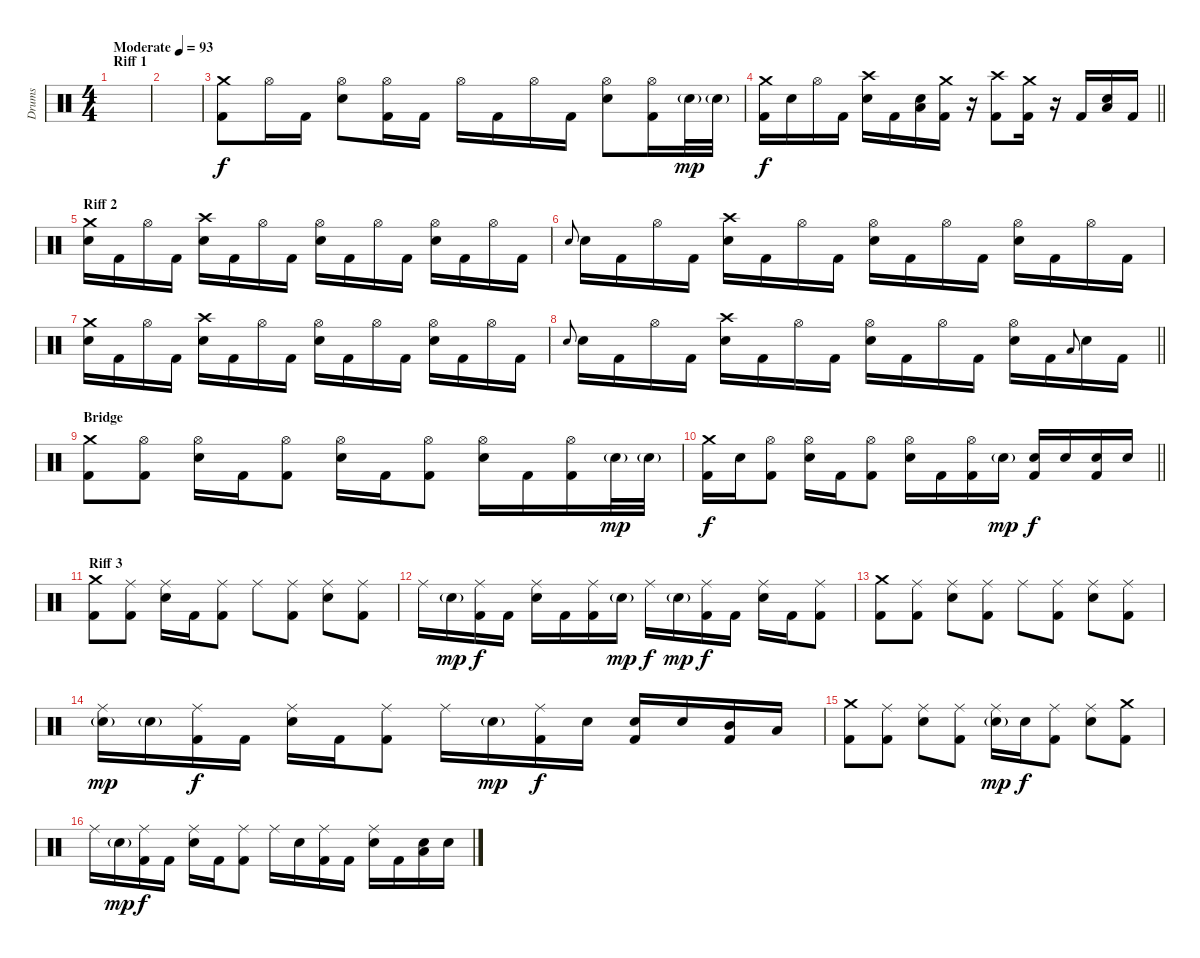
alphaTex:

\track ("Drums" "Drums") {instrument percussion}
\staff {score}
\articulation defaults
\ts (4 4)
\section ("" "Riff 1")
\tempo (93 "Moderate")
\clef neutral
\ks c
|
|
("Kick (hit) 2" "Crash medium (hit)").8 "Hi-Hat (open)".16 "Kick (hit) 2".16 ("Hi-Hat (open)" "Electric Snare (hit)").8 ("Kick (hit) 2" "Hi-Hat (open)").16 "Kick (hit) 2".16 "Hi-Hat (open)".16 "Kick (hit) 2".16 "Hi-Hat (open)".16 "Kick (hit) 2".16 ("Electric Snare (hit)" "Hi-Hat (open)").8 ("Kick (hit) 2" "Hi-Hat (open)").16 "Electric Snare (hit)"{g}.32{dy mp} "Electric Snare (hit)"{g}.32 |
\barLineRight lightlight
("Crash medium (hit)" "Kick (hit) 2").16{dy f} "Electric Snare (hit)".16 "Hi-Hat (open)".16 "Kick (hit) 2".16 ("Crash high (hit)" "Electric Snare (hit)").16 "Kick (hit) 2".16 ("Electric Snare (hit)" "Low Floor Tom (hit)").16 ("Crash medium (hit)" "Kick (hit) 2").16 r.16 ("Kick (hit) 2" "Crash high (hit)").8 ("Crash medium (hit)" "Kick (hit) 2").16 r.16 "Kick (hit) 2".16 ("Electric Snare (hit)" "Low Floor Tom (hit)").16 "Kick (hit) 2".16 |
\section ("" "Riff 2")
("Electric Snare (hit)" "Crash medium (hit)").16 "Kick (hit) 2".16 "Hi-Hat (open)".16 "Kick (hit) 2".16 ("Crash high (hit)" "Electric Snare (hit)").16 "Kick (hit) 2".16 "Hi-Hat (open)".16 "Kick (hit) 2".16 ("Hi-Hat (open)" "Electric Snare (hit)").16 "Kick (hit) 2".16 "Hi-Hat (open)".16 "Kick (hit) 2".16 ("Hi-Hat (open)" "Electric Snare (hit)").16 "Kick (hit) 2".16 "Hi-Hat (open)".16 "Kick (hit) 2".16 |
"Electric Snare (hit)".8{gr onbeat} "Electric Snare (hit)".16 "Kick (hit) 2".16 "Hi-Hat (open)".16 "Kick (hit) 2".16 ("Crash high (hit)" "Electric Snare (hit)").16 "Kick (hit) 2".16 "Hi-Hat (open)".16 "Kick (hit) 2".16 ("Hi-Hat (open)" "Electric Snare (hit)").16 "Kick (hit) 2".16 "Hi-Hat (open)".16 "Kick (hit) 2".16 ("Hi-Hat (open)" "Electric Snare (hit)").16 "Kick (hit) 2".16 "Hi-Hat (open)".16 "Kick (hit) 2".16 |
("Electric Snare (hit)" "Crash medium (hit)").16 "Kick (hit) 2".16 "Hi-Hat (open)".16 "Kick (hit) 2".16 ("Crash high (hit)" "Electric Snare (hit)").16 "Kick (hit) 2".16 "Hi-Hat (open)".16 "Kick (hit) 2".16 ("Hi-Hat (open)" "Electric Snare (hit)").16 "Kick (hit) 2".16 "Hi-Hat (open)".16 "Kick (hit) 2".16 ("Hi-Hat (open)" "Electric Snare (hit)").16 "Kick (hit) 2".16 "Hi-Hat (open)".16 "Kick (hit) 2".16 |
\barLineRight lightlight "Electric Snare (hit)".8{gr onbeat} "Electric Snare (hit)".16 "Kick (hit) 2".16 "Hi-Hat (open)".16 "Kick (hit) 2".16
("Crash high (hit)" "Electric Snare (hit)").16 "Kick (hit) 2".16 "Hi-Hat (open)".16 "Kick (hit) 2".16 ("Hi-Hat (open)" "Electric Snare (hit)").16 "Kick (hit) 2".16 "Hi-Hat (open)".16 "Kick (hit) 2".16 ("Hi-Hat (open)" "Electric Snare (hit)").16 "Kick (hit) 2".16 "Low Floor Tom (hit)".8{gr onbeat} "Electric Snare (hit)".16 "Kick (hit) 2".16 |
\section ("" "Bridge")
("Kick (hit) 2" "Crash medium (hit)").8 ("Hi-Hat (open)" "Kick (hit) 2").8 ("Hi-Hat (open)" "Electric Snare (hit)").16 "Kick (hit) 2".16 ("Kick (hit) 2" "Hi-Hat (open)").8 ("Hi-Hat (open)" "Electric Snare (hit)").16 "Kick (hit) 2".16 ("Kick (hit) 2" "Hi-Hat (open)").8 ("Hi-Hat (open)" "Electric Snare (hit)").16 "Kick (hit) 2".16 ("Kick (hit) 2" "Hi-Hat (open)").16 "Electric Snare (hit)"{g}.32{dy mp} "Electric Snare (hit)"{g}.32 |
\barLineRight lightlight
("Crash medium (hit)" "Kick (hit) 2").16{dy f} "Electric Snare (hit)".16 ("Hi-Hat (open)" "Kick (hit) 2").8 ("Electric Snare (hit)" "Hi-Hat (open)").16 "Kick (hit) 2".16 ("Kick (hit) 2" "Hi-Hat (open)").8 ("Electric Snare (hit)" "Hi-Hat (open)").16 "Kick (hit) 2".16 ("Kick (hit) 2" "Hi-Hat (open)").16 "Electric Snare (hit)"{g}.16{dy mp} ("Kick (hit) 2" "Electric Snare (hit)").16{dy f} "Electric Snare (hit)".16 ("Kick (hit) 2" "Electric Snare (hit)").16 "Electric Snare (hit)".16 |
\section ("" "Riff 3")
("Crash medium (hit)" "Kick (hit) 2").8 ("Ride (middle)" "Kick (hit) 2").8 ("Electric Snare (hit)" "Ride (middle)").16 "Kick (hit) 2".16 ("Ride (middle)" "Kick (hit) 2").8 "Ride (middle)".8 ("Kick (hit) 2" "Ride (middle)").8 ("Electric Snare (hit)" "Ride (middle)").8 ("Kick (hit) 2" "Ride (middle)").8 |
"Ride (middle)".16 "Electric Snare (hit)"{g}.16{dy mp} ("Kick (hit) 2" "Ride (middle)").16{dy f} "Kick (hit) 2".16 ("Electric Snare (hit)" "Ride (middle)").16 "Kick (hit) 2".16 ("Kick (hit) 2" "Ride (middle)").16 "Electric Snare (hit)"{g}.16{dy mp} "Ride (middle)".16{dy f} "Electric Snare (hit)"{g}.16{dy mp} ("Ride (middle)" "Kick (hit) 2").16{dy f} "Kick (hit) 2".16 ("Ride (middle)" "Electric Snare (hit)").16 "Kick (hit) 2".16 ("Kick (hit) 2" "Ride (middle)").8 |
("Crash medium (hit)" "Kick (hit) 2").8 ("Ride (middle)" "Kick (hit) 2").8 ("Electric Snare (hit)" "Ride (middle)").8 ("Ride (middle)" "Kick (hit) 2").8 "Ride (middle)".8 ("Kick (hit) 2" "Ride (middle)").8 ("Electric Snare (hit)" "Ride (middle)").8 ("Kick (hit) 2" "Ride (middle)").8 |
("Electric Snare (hit)"{g} "Ride (middle)").16{dy mp} "Electric Snare (hit)"{g}.16 ("Ride (middle)" "Kick (hit) 2").16{dy f} "Kick (hit) 2".16 ("Electric Snare (hit)" "Ride (middle)").16 "Kick (hit) 2".16 ("Kick (hit) 2" "Ride (middle)").8 "Ride (middle)".16 "Electric Snare (hit)"{g}.16{dy mp} ("Kick (hit) 2" "Ride (middle)").16{dy f} "Electric Snare (hit)".16 ("Electric Snare (hit)" "Kick (hit) 2").16 "Electric Snare (hit)".16 ("Mid Tom (hit)" "Kick (hit) 2").16 "Low Floor Tom (hit)".16 |
("Crash medium (hit)" "Kick (hit) 2").8 ("Ride (middle)" "Kick (hit) 2").8 ("Electric Snare (hit)" "Ride (middle)").8 ("Ride (middle)" "Kick (hit) 2").8 ("Electric Snare (hit)"{g} "Ride (middle)").16{dy mp} "Electric Snare (hit)".16{dy f} ("Kick (hit) 2" "Ride (middle)").8 ("Electric Snare (hit)" "Ride (middle)").8 ("Kick (hit) 2" "Crash medium (hit)").8 |
"Ride (middle)".16 "Electric Snare (hit)"{g}.16{dy mp} ("Kick (hit) 2" "Ride (middle)").16{dy f} "Kick (hit) 2".16 ("Electric Snare (hit)" "Ride (middle)").16 "Kick (hit) 2".16 ("Ride (middle)" "Kick (hit) 2").8 "Ride (middle)".16 "Electric Snare (hit)".16 ("Ride (middle)" "Kick (hit) 2").16 "Kick (hit) 2".16 ("Ride (middle)" "Electric Snare (hit)").16 "Kick (hit) 2".16 ("Electric Snare (hit)" "Low Floor Tom (hit)").16 "Electric Snare (hit)".16
